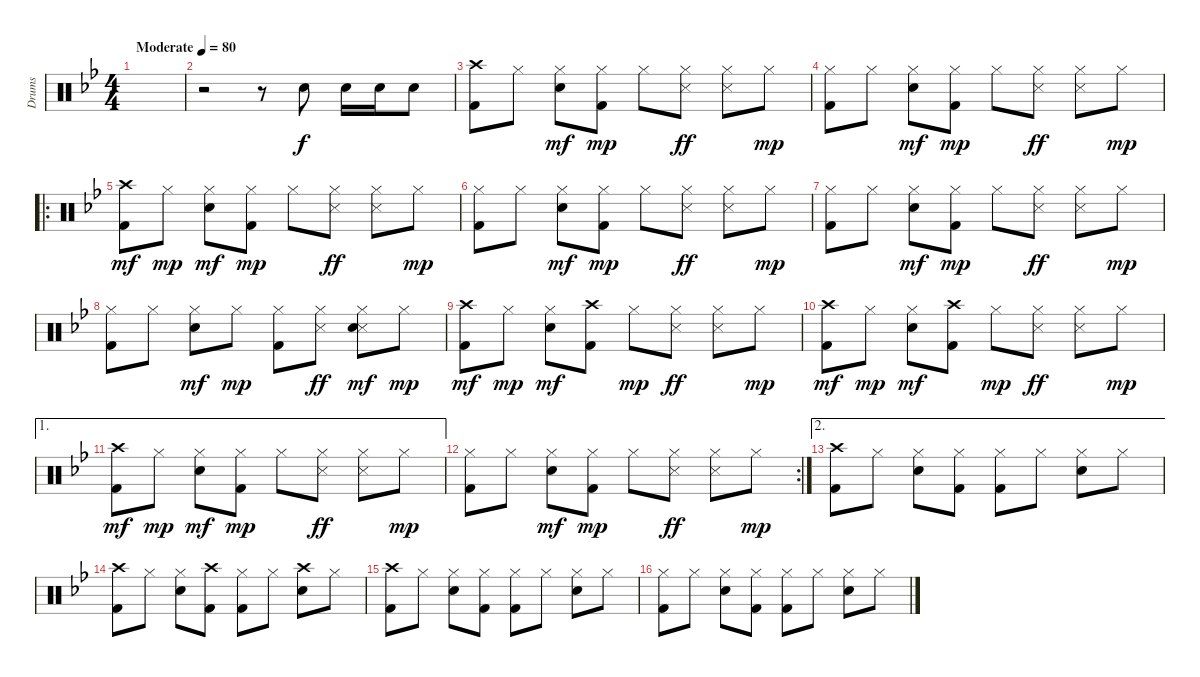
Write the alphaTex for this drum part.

\track ("Drums" "Drums") {instrument percussion}
\staff {score}
\articulation defaults
\ts (4 4)
\tempo (80 "Moderate")
\clef neutral
\ks bb
|
r.2 r.8 "Snare (hit) 2".8 "Snare (hit) 2".16 "Snare (hit) 2".16 "Snare (hit) 2".8 |
("Crash high (hit)" "Kick (hit) 2").8 "Hi-Hat (closed)".8 ("Hi-Hat (closed)" "Snare (hit) 2").8{dy mf} ("Hi-Hat (closed)" "Kick (hit) 2").8{dy mp} "Hi-Hat (closed)".8 ("Hi-Hat (closed)" "Snare (side stick) 3").8{dy ff} ("Hi-Hat (closed)" "Snare (side stick) 3").8 "Hi-Hat (closed)".8{dy mp} |
("Hi-Hat (closed)" "Kick (hit) 2").8 "Hi-Hat (closed)".8 ("Hi-Hat (closed)" "Snare (hit) 2").8{dy mf} ("Hi-Hat (closed)" "Kick (hit) 2").8{dy mp} "Hi-Hat (closed)".8 ("Hi-Hat (closed)" "Snare (side stick) 3").8{dy ff} ("Hi-Hat (closed)" "Snare (side stick) 3").8 "Hi-Hat (closed)".8{dy mp} |
\ro
("Crash high (hit)" "Kick (hit) 2").8{dy mf} "Hi-Hat (closed)".8{dy mp} ("Hi-Hat (closed)" "Snare (hit) 2").8{dy mf} ("Hi-Hat (closed)" "Kick (hit) 2").8{dy mp} "Hi-Hat (closed)".8 ("Hi-Hat (closed)" "Snare (side stick) 3").8{dy ff} ("Hi-Hat (closed)" "Snare (side stick) 3").8 "Hi-Hat (closed)".8{dy mp} |
("Hi-Hat (closed)" "Kick (hit) 2").8 "Hi-Hat (closed)".8 ("Hi-Hat (closed)" "Snare (hit) 2").8{dy mf} ("Hi-Hat (closed)" "Kick (hit) 2").8{dy mp} "Hi-Hat (closed)".8 ("Hi-Hat (closed)" "Snare (side stick) 3").8{dy ff} ("Hi-Hat (closed)" "Snare (side stick) 3").8 "Hi-Hat (closed)".8{dy mp} |
("Hi-Hat (closed)" "Kick (hit) 2").8 "Hi-Hat (closed)".8 ("Hi-Hat (closed)" "Snare (hit) 2").8{dy mf} ("Hi-Hat (closed)" "Kick (hit) 2").8{dy mp} "Hi-Hat (closed)".8 ("Hi-Hat (closed)" "Snare (side stick) 3").8{dy ff} ("Hi-Hat (closed)" "Snare (side stick) 3").8 "Hi-Hat (closed)".8{dy mp} |
("Hi-Hat (closed)" "Kick (hit) 2").8 "Hi-Hat (closed)".8 ("Hi-Hat (closed)" "Snare (hit) 2").8{dy mf} "Hi-Hat (closed)".8{dy mp} ("Hi-Hat (closed)" "Kick (hit) 2").8 ("Hi-Hat (closed)" "Snare (side stick) 3").8{dy ff} ("Hi-Hat (closed)" "Snare (side stick) 3" "Snare (hit) 2").8{dy mf} "Hi-Hat (closed)".8{dy mp} |
("Crash high (hit)" "Kick (hit) 2").8{dy mf} "Hi-Hat (closed)".8{dy mp} ("Hi-Hat (closed)" "Snare (hit) 2").8{dy mf} ("Crash high (hit)" "Kick (hit) 2").8 "Hi-Hat (closed)".8{dy mp} ("Hi-Hat (closed)" "Snare (side stick) 3").8{dy ff} ("Hi-Hat (closed)" "Snare (side stick) 3").8 "Hi-Hat (closed)".8{dy mp} |
("Crash high (hit)" "Kick (hit) 2").8{dy mf} "Hi-Hat (closed)".8{dy mp} ("Hi-Hat (closed)" "Snare (hit) 2").8{dy mf} ("Crash high (hit)" "Kick (hit) 2").8 "Hi-Hat (closed)".8{dy mp} ("Hi-Hat (closed)" "Snare (side stick) 3").8{dy ff} ("Hi-Hat (closed)" "Snare (side stick) 3").8 "Hi-Hat (closed)".8{dy mp} |
\ae 1
("Crash high (hit)" "Kick (hit) 2").8{dy mf} "Hi-Hat (closed)".8{dy mp} ("Hi-Hat (closed)" "Snare (hit) 2").8{dy mf} ("Hi-Hat (closed)" "Kick (hit) 2").8{dy mp} "Hi-Hat (closed)".8 ("Hi-Hat (closed)" "Snare (side stick) 3").8{dy ff} ("Hi-Hat (closed)" "Snare (side stick) 3").8 "Hi-Hat (closed)".8{dy mp} |
\rc 2
("Hi-Hat (closed)" "Kick (hit) 2").8 "Hi-Hat (closed)".8 ("Hi-Hat (closed)" "Snare (hit) 2").8{dy mf} ("Hi-Hat (closed)" "Kick (hit) 2").8{dy mp} "Hi-Hat (closed)".8 ("Hi-Hat (closed)" "Snare (side stick) 3").8{dy ff} ("Hi-Hat (closed)" "Snare (side stick) 3").8 "Hi-Hat (closed)".8{dy mp} |
\ae 2
("Crash high (hit)" "Kick (hit) 2").8 "Hi-Hat (closed)".8 ("Hi-Hat (closed)" "Snare (hit) 2").8 ("Hi-Hat (closed)" "Kick (hit) 2").8 ("Hi-Hat (closed)" "Kick (hit) 2").8 "Hi-Hat (closed)".8 ("Hi-Hat (closed)" "Snare (hit) 2").8 "Hi-Hat (closed)".8 |
("Crash high (hit)" "Kick (hit) 2").8 "Hi-Hat (closed)".8 ("Hi-Hat (closed)" "Snare (hit) 2").8 ("Crash high (hit)" "Kick (hit) 2").8 ("Hi-Hat (closed)" "Kick (hit) 2").8 "Hi-Hat (closed)".8 ("Crash high (hit)" "Snare (hit) 2").8 "Hi-Hat (closed)".8 |
("Crash high (hit)" "Kick (hit) 2").8 "Hi-Hat (closed)".8 ("Hi-Hat (closed)" "Snare (hit) 2").8 ("Hi-Hat (closed)" "Kick (hit) 2").8 ("Hi-Hat (closed)" "Kick (hit) 2").8 "Hi-Hat (closed)".8 ("Hi-Hat (closed)" "Snare (hit) 2").8 "Hi-Hat (closed)".8 |
("Hi-Hat (closed)" "Kick (hit) 2").8 "Hi-Hat (closed)".8 ("Hi-Hat (closed)" "Snare (hit) 2").8 ("Hi-Hat (closed)" "Kick (hit) 2").8 ("Hi-Hat (closed)" "Kick (hit) 2").8 "Hi-Hat (closed)".8 ("Hi-Hat (closed)" "Snare (hit) 2").8 "Hi-Hat (closed)".8
